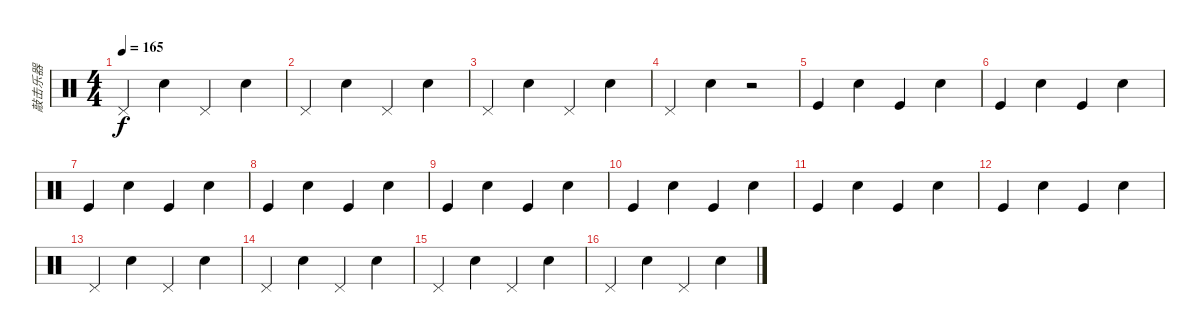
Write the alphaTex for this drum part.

\track ("敲击乐器" "敲击乐器") {instrument percussion}
\staff {score}
\articulation defaults
\ts (4 4)
\tempo 165
\clef neutral
\ks c "Pedal Hi-Hat (hit)".4{dy f} "Snare (hit) 2".4 "Pedal Hi-Hat (hit)".4 "Snare (hit) 2".4
|
"Pedal Hi-Hat (hit)".4 "Snare (hit) 2".4 "Pedal Hi-Hat (hit)".4 "Snare (hit) 2".4 |
"Pedal Hi-Hat (hit)".4 "Snare (hit) 2".4 "Pedal Hi-Hat (hit)".4 "Snare (hit) 2".4 |
"Pedal Hi-Hat (hit)".4 "Snare (hit) 2".4 r.2 |
"Kick (hit)".4 "Snare (hit) 2".4 "Kick (hit)".4 "Snare (hit) 2".4 |
"Kick (hit)".4 "Snare (hit) 2".4 "Kick (hit)".4 "Snare (hit) 2".4 |
"Kick (hit)".4 "Snare (hit) 2".4 "Kick (hit)".4 "Snare (hit) 2".4 |
"Kick (hit)".4 "Snare (hit) 2".4 "Kick (hit)".4 "Snare (hit) 2".4 |
"Kick (hit)".4 "Snare (hit) 2".4 "Kick (hit)".4 "Snare (hit) 2".4 |
"Kick (hit)".4 "Snare (hit) 2".4 "Kick (hit)".4 "Snare (hit) 2".4 |
"Kick (hit)".4 "Snare (hit) 2".4 "Kick (hit)".4 "Snare (hit) 2".4 |
"Kick (hit)".4 "Snare (hit) 2".4 "Kick (hit)".4 "Snare (hit) 2".4 |
"Pedal Hi-Hat (hit)".4 "Snare (hit) 2".4 "Pedal Hi-Hat (hit)".4 "Snare (hit) 2".4 |
"Pedal Hi-Hat (hit)".4 "Snare (hit) 2".4 "Pedal Hi-Hat (hit)".4 "Snare (hit) 2".4 |
"Pedal Hi-Hat (hit)".4 "Snare (hit) 2".4 "Pedal Hi-Hat (hit)".4 "Snare (hit) 2".4 |
"Pedal Hi-Hat (hit)".4 "Snare (hit) 2".4 "Pedal Hi-Hat (hit)".4 "Snare (hit) 2".4
